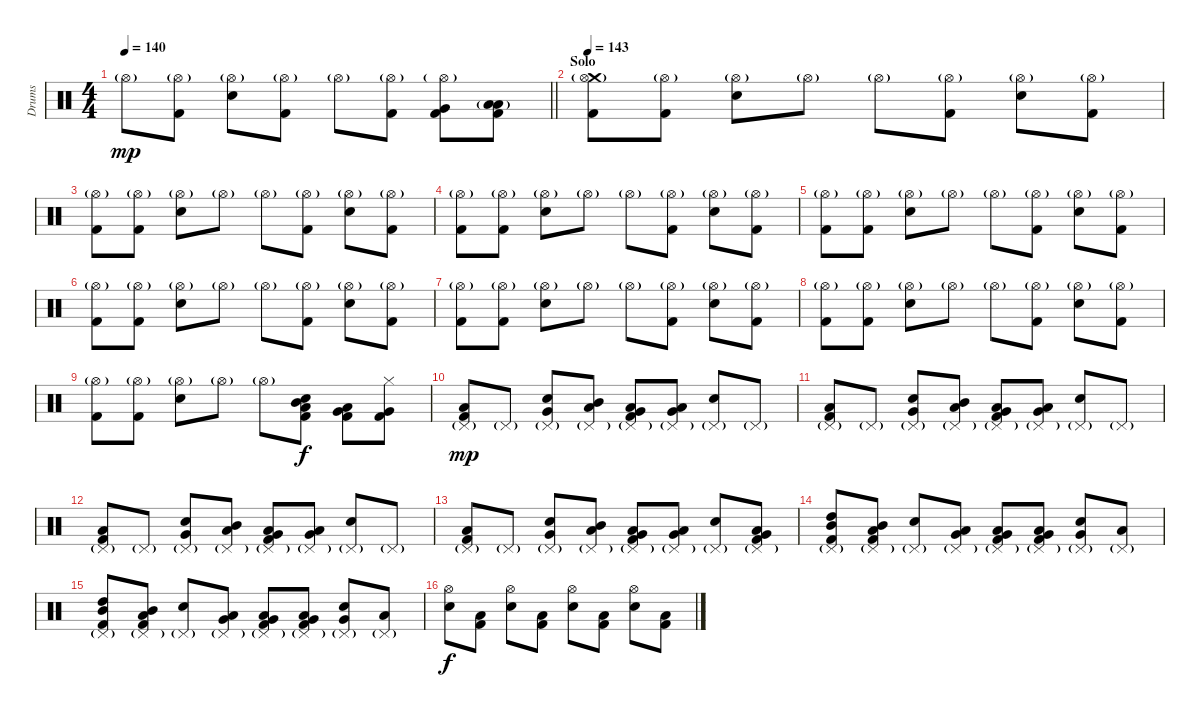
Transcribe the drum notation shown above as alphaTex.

\track ("Drums" "Drums") {instrument percussion}
\staff {score}
\articulation defaults
\ts (4 4)
\tempo 140
\clef neutral
\barLineRight lightlight
\ks c "Hi-Hat (open)"{g}.8{dy mp}
("Hi-Hat (open)"{g} "Kick (hit) 2").8 ("Hi-Hat (open)"{g} "Electric Snare (hit)").8 ("Hi-Hat (open)"{g} "Kick (hit) 2").8 "Hi-Hat (open)"{g}.8 ("Hi-Hat (open)"{g} "Kick (hit) 2").8 ("Hi-Hat (open)"{g} "Very Low Tom (hit)" "Kick (hit) 2").8 ("Low Tom (hit)"{g} "Low Floor Tom (hit)" "Kick (hit) 2").8 |
\section ("" "Solo")
\tempo 143
("Crash medium (hit)" "Hi-Hat (open)"{g} "Kick (hit) 2").8 ("Hi-Hat (open)"{g} "Kick (hit) 2").8 ("Hi-Hat (open)"{g} "Electric Snare (hit)").8 "Hi-Hat (open)"{g}.8 "Hi-Hat (open)"{g}.8 ("Hi-Hat (open)"{g} "Kick (hit) 2").8 ("Hi-Hat (open)"{g} "Electric Snare (hit)").8 ("Hi-Hat (open)"{g} "Kick (hit) 2").8 |
("Hi-Hat (open)"{g} "Kick (hit) 2").8 ("Hi-Hat (open)"{g} "Kick (hit) 2").8 ("Hi-Hat (open)"{g} "Electric Snare (hit)").8 "Hi-Hat (open)"{g}.8 "Hi-Hat (open)"{g}.8 ("Hi-Hat (open)"{g} "Kick (hit) 2").8 ("Hi-Hat (open)"{g} "Electric Snare (hit)").8 ("Hi-Hat (open)"{g} "Kick (hit) 2").8 |
("Hi-Hat (open)"{g} "Kick (hit) 2").8 ("Hi-Hat (open)"{g} "Kick (hit) 2").8 ("Hi-Hat (open)"{g} "Electric Snare (hit)").8 "Hi-Hat (open)"{g}.8 "Hi-Hat (open)"{g}.8 ("Hi-Hat (open)"{g} "Kick (hit) 2").8 ("Hi-Hat (open)"{g} "Electric Snare (hit)").8 ("Hi-Hat (open)"{g} "Kick (hit) 2").8 |
("Hi-Hat (open)"{g} "Kick (hit) 2").8 ("Hi-Hat (open)"{g} "Kick (hit) 2").8 ("Hi-Hat (open)"{g} "Electric Snare (hit)").8 "Hi-Hat (open)"{g}.8 "Hi-Hat (open)"{g}.8 ("Hi-Hat (open)"{g} "Kick (hit) 2").8 ("Hi-Hat (open)"{g} "Electric Snare (hit)").8 ("Hi-Hat (open)"{g} "Kick (hit) 2").8 |
("Hi-Hat (open)"{g} "Kick (hit) 2").8 ("Hi-Hat (open)"{g} "Kick (hit) 2").8 ("Hi-Hat (open)"{g} "Electric Snare (hit)").8 "Hi-Hat (open)"{g}.8 "Hi-Hat (open)"{g}.8 ("Hi-Hat (open)"{g} "Kick (hit) 2").8 ("Hi-Hat (open)"{g} "Electric Snare (hit)").8 ("Hi-Hat (open)"{g} "Kick (hit) 2").8 |
("Hi-Hat (open)"{g} "Kick (hit) 2").8 ("Hi-Hat (open)"{g} "Kick (hit) 2").8 ("Hi-Hat (open)"{g} "Electric Snare (hit)").8 "Hi-Hat (open)"{g}.8 "Hi-Hat (open)"{g}.8 ("Hi-Hat (open)"{g} "Kick (hit) 2").8 ("Hi-Hat (open)"{g} "Electric Snare (hit)").8 ("Hi-Hat (open)"{g} "Kick (hit) 2").8 |
("Hi-Hat (open)"{g} "Kick (hit) 2").8 ("Hi-Hat (open)"{g} "Kick (hit) 2").8 ("Hi-Hat (open)"{g} "Electric Snare (hit)").8 "Hi-Hat (open)"{g}.8 "Hi-Hat (open)"{g}.8 ("Hi-Hat (open)"{g} "Kick (hit) 2").8 ("Hi-Hat (open)"{g} "Electric Snare (hit)").8 ("Hi-Hat (open)"{g} "Kick (hit) 2").8 |
("Hi-Hat (open)"{g} "Kick (hit) 2").8 ("Hi-Hat (open)"{g} "Kick (hit) 2").8 ("Hi-Hat (open)"{g} "Electric Snare (hit)").8 "Hi-Hat (open)"{g}.8 "Hi-Hat (open)"{g}.8 ("Mid Tom (hit)" "Electric Snare (hit)" "Low Tom (hit)" "Kick (hit) 2").8{dy f} ("Low Tom (hit)" "Very Low Tom (hit)" "Kick (hit) 2").8 ("Very Low Tom (hit)" "Hi-Hat (closed)" "Kick (hit) 2").8 |
("Pedal Hi-Hat (hit)"{g} "Low Tom (hit)" "Kick (hit) 2").8{dy mp} "Pedal Hi-Hat (hit)"{g}.8 ("Pedal Hi-Hat (hit)"{g} "Electric Snare (hit)" "Very Low Tom (hit)").8 ("Mid Tom (hit)" "Pedal Hi-Hat (hit)"{g} "Low Tom (hit)").8 ("Low Tom (hit)" "Pedal Hi-Hat (hit)"{g} "Very Low Tom (hit)" "Kick (hit) 2").8 ("Very Low Tom (hit)" "Pedal Hi-Hat (hit)"{g} "Low Floor Tom (hit)").8 ("Pedal Hi-Hat (hit)"{g} "Electric Snare (hit)").8 "Pedal Hi-Hat (hit)"{g}.8 |
("Pedal Hi-Hat (hit)"{g} "Low Tom (hit)" "Kick (hit) 2").8 "Pedal Hi-Hat (hit)"{g}.8 ("Pedal Hi-Hat (hit)"{g} "Electric Snare (hit)" "Very Low Tom (hit)").8 ("Mid Tom (hit)" "Pedal Hi-Hat (hit)"{g} "Low Tom (hit)").8 ("Low Tom (hit)" "Pedal Hi-Hat (hit)"{g} "Very Low Tom (hit)" "Kick (hit) 2").8 ("Very Low Tom (hit)" "Pedal Hi-Hat (hit)"{g} "Low Floor Tom (hit)").8 ("Pedal Hi-Hat (hit)"{g} "Electric Snare (hit)").8 "Pedal Hi-Hat (hit)"{g}.8 |
("Pedal Hi-Hat (hit)"{g} "Low Tom (hit)" "Kick (hit) 2").8 "Pedal Hi-Hat (hit)"{g}.8 ("Pedal Hi-Hat (hit)"{g} "Electric Snare (hit)" "Very Low Tom (hit)").8 ("Mid Tom (hit)" "Pedal Hi-Hat (hit)"{g} "Low Tom (hit)").8 ("Low Tom (hit)" "Pedal Hi-Hat (hit)"{g} "Very Low Tom (hit)" "Kick (hit) 2").8 ("Very Low Tom (hit)" "Pedal Hi-Hat (hit)"{g} "Low Floor Tom (hit)").8 ("Pedal Hi-Hat (hit)"{g} "Electric Snare (hit)").8 "Pedal Hi-Hat (hit)"{g}.8 |
("Pedal Hi-Hat (hit)"{g} "Low Tom (hit)" "Kick (hit) 2").8 "Pedal Hi-Hat (hit)"{g}.8 ("Pedal Hi-Hat (hit)"{g} "Electric Snare (hit)" "Very Low Tom (hit)").8 ("Mid Tom (hit)" "Pedal Hi-Hat (hit)"{g} "Low Tom (hit)").8 ("Low Tom (hit)" "Pedal Hi-Hat (hit)"{g} "Very Low Tom (hit)" "Kick (hit) 2").8 ("Very Low Tom (hit)" "Pedal Hi-Hat (hit)"{g} "Low Floor Tom (hit)").8 ("Pedal Hi-Hat (hit)"{g} "Electric Snare (hit)").8 ("Low Floor Tom (hit)" "Pedal Hi-Hat (hit)"{g} "Very Low Tom (hit)" "Kick (hit) 2").8 |
("Mid Tom (hit)" "Pedal Hi-Hat (hit)"{g} "High Tom (hit)" "Kick (hit) 2").8 ("Low Tom (hit)" "Pedal Hi-Hat (hit)"{g} "Mid Tom (hit)" "Kick (hit) 2").8 ("Pedal Hi-Hat (hit)"{g} "Electric Snare (hit)").8 ("Very Low Tom (hit)" "Pedal Hi-Hat (hit)"{g} "Low Floor Tom (hit)").8 ("Very Low Tom (hit)" "Pedal Hi-Hat (hit)"{g} "Low Tom (hit)" "Kick (hit) 2").8 ("Very Low Tom (hit)" "Pedal Hi-Hat (hit)"{g} "Low Tom (hit)" "Kick (hit) 2").8 ("Very Low Tom (hit)" "Pedal Hi-Hat (hit)"{g} "Electric Snare (hit)").8 ("Pedal Hi-Hat (hit)"{g} "Low Floor Tom (hit)").8 |
("Mid Tom (hit)" "Pedal Hi-Hat (hit)"{g} "High Tom (hit)" "Kick (hit) 2").8 ("Low Tom (hit)" "Pedal Hi-Hat (hit)"{g} "Mid Tom (hit)" "Kick (hit) 2").8 ("Pedal Hi-Hat (hit)"{g} "Electric Snare (hit)").8 ("Very Low Tom (hit)" "Pedal Hi-Hat (hit)"{g} "Low Floor Tom (hit)").8 ("Very Low Tom (hit)" "Pedal Hi-Hat (hit)"{g} "Low Tom (hit)" "Kick (hit) 2").8 ("Very Low Tom (hit)" "Pedal Hi-Hat (hit)"{g} "Low Tom (hit)" "Kick (hit) 2").8 ("Very Low Tom (hit)" "Pedal Hi-Hat (hit)"{g} "Electric Snare (hit)").8 ("Pedal Hi-Hat (hit)"{g} "Low Floor Tom (hit)").8 |
("Hi-Hat (open)" "Electric Snare (hit)").8{dy f} ("Low Floor Tom (hit)" "Kick (hit) 2").8 ("Hi-Hat (open)" "Electric Snare (hit)").8 ("Low Floor Tom (hit)" "Kick (hit) 2").8 ("Hi-Hat (open)" "Electric Snare (hit)").8 ("Low Floor Tom (hit)" "Kick (hit) 2").8 ("Hi-Hat (open)" "Electric Snare (hit)").8 ("Low Floor Tom (hit)" "Kick (hit) 2").8
